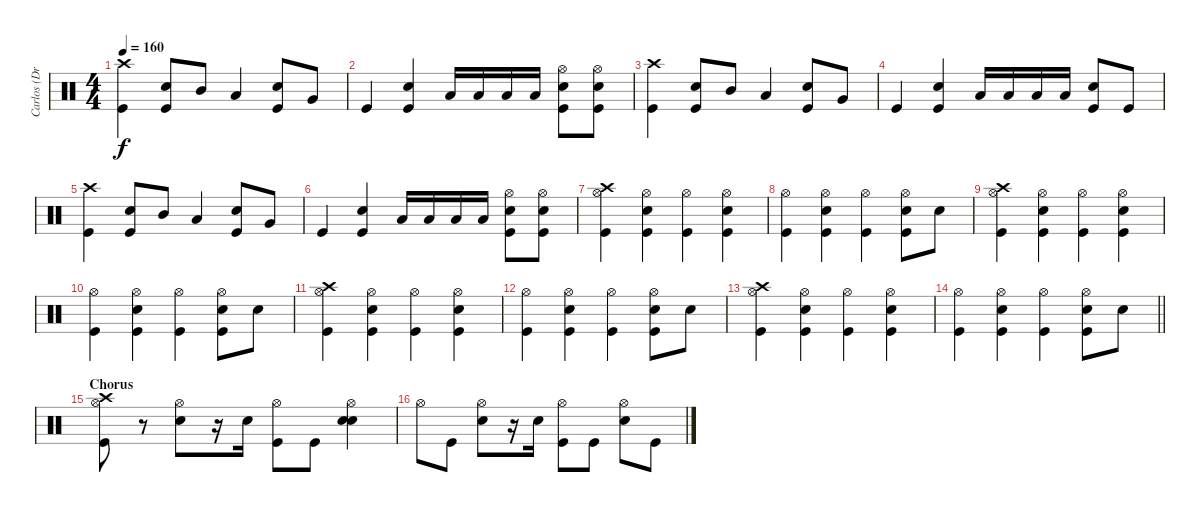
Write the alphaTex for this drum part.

\track ("Carlos (Drums)" "Carlos (Dr") {instrument percussion}
\staff {score}
\articulation defaults
\ts (4 4)
\tempo 160
\clef neutral
\ks c
("Crash high (hit)" "Kick (hit)").4{dy f} ("Snare (hit) 2" "Kick (hit)").8 "Mid Tom (hit)".8 "Low Tom (hit)".4 ("Snare (hit) 2" "Kick (hit)").8 "Very Low Tom (hit)".8 |
"Kick (hit)".4 ("Snare (hit) 2" "Kick (hit)").4 "Low Tom (hit)".16 "Low Tom (hit)".16 "Low Tom (hit)".16 "Low Tom (hit)".16 ("Hi-Hat (open)" "Snare (hit) 2" "Kick (hit)").8 ("Hi-Hat (open)" "Snare (hit) 2" "Kick (hit)").8 |
("Crash high (hit)" "Kick (hit)").4 ("Snare (hit) 2" "Kick (hit)").8 "Mid Tom (hit)".8 "Low Tom (hit)".4 ("Snare (hit) 2" "Kick (hit)").8 "Very Low Tom (hit)".8 |
"Kick (hit)".4 ("Snare (hit) 2" "Kick (hit)").4 "Low Tom (hit)".16 "Low Tom (hit)".16 "Low Tom (hit)".16 "Low Tom (hit)".16 ("Snare (hit) 2" "Kick (hit)").8 "Kick (hit)".8 |
("Crash high (hit)" "Kick (hit)").4 ("Snare (hit) 2" "Kick (hit)").8 "Mid Tom (hit)".8 "Low Tom (hit)".4 ("Snare (hit) 2" "Kick (hit)").8 "Very Low Tom (hit)".8 |
"Kick (hit)".4 ("Snare (hit) 2" "Kick (hit)").4 "Low Tom (hit)".16 "Low Tom (hit)".16 "Low Tom (hit)".16 "Low Tom (hit)".16 ("Hi-Hat (open)" "Snare (hit) 2" "Kick (hit)").8 ("Hi-Hat (open)" "Snare (hit) 2" "Kick (hit)").8 |
("Crash high (hit)" "Hi-Hat (open)" "Kick (hit)").4 ("Hi-Hat (open)" "Snare (hit) 2" "Kick (hit)").4 ("Hi-Hat (open)" "Kick (hit)").4 ("Hi-Hat (open)" "Snare (hit) 2" "Kick (hit)").4 |
("Hi-Hat (open)" "Kick (hit)").4 ("Hi-Hat (open)" "Snare (hit) 2" "Kick (hit)").4 ("Hi-Hat (open)" "Kick (hit)").4 ("Hi-Hat (open)" "Snare (hit) 2" "Kick (hit)").8 "Snare (hit) 2".8 |
("Crash high (hit)" "Hi-Hat (open)" "Kick (hit)").4 ("Hi-Hat (open)" "Snare (hit) 2" "Kick (hit)").4 ("Hi-Hat (open)" "Kick (hit)").4 ("Hi-Hat (open)" "Snare (hit) 2" "Kick (hit)").4 |
("Hi-Hat (open)" "Kick (hit)").4 ("Hi-Hat (open)" "Snare (hit) 2" "Kick (hit)").4 ("Hi-Hat (open)" "Kick (hit)").4 ("Hi-Hat (open)" "Snare (hit) 2" "Kick (hit)").8 "Snare (hit) 2".8 |
("Crash high (hit)" "Hi-Hat (open)" "Kick (hit)").4 ("Hi-Hat (open)" "Snare (hit) 2" "Kick (hit)").4 ("Hi-Hat (open)" "Kick (hit)").4 ("Hi-Hat (open)" "Snare (hit) 2" "Kick (hit)").4 |
("Hi-Hat (open)" "Kick (hit)").4 ("Hi-Hat (open)" "Snare (hit) 2" "Kick (hit)").4 ("Hi-Hat (open)" "Kick (hit)").4 ("Hi-Hat (open)" "Snare (hit) 2" "Kick (hit)").8 "Snare (hit) 2".8 |
("Crash high (hit)" "Hi-Hat (open)" "Kick (hit)").4 ("Hi-Hat (open)" "Snare (hit) 2" "Kick (hit)").4 ("Hi-Hat (open)" "Kick (hit)").4 ("Hi-Hat (open)" "Snare (hit) 2" "Kick (hit)").4 |
\barLineRight lightlight
("Hi-Hat (open)" "Kick (hit)").4 ("Hi-Hat (open)" "Snare (hit) 2" "Kick (hit)").4 ("Hi-Hat (open)" "Kick (hit)").4 ("Hi-Hat (open)" "Snare (hit) 2" "Kick (hit)").8 "Snare (hit) 2".8 |
\section ("" "Chorus")
("Crash high (hit)" "Hi-Hat (open)" "Kick (hit)").8 r.8 ("Hi-Hat (open)" "Snare (hit) 2").8 r.16 "Snare (hit) 2".16 ("Hi-Hat (open)" "Kick (hit)").8 "Kick (hit)".8 ("Hi-Hat (open)" "Snare (hit) 2" "Snare (hit) 2").4 |
"Hi-Hat (open)".8 "Kick (hit)".8 ("Hi-Hat (open)" "Snare (hit) 2").8 r.16 "Snare (hit) 2".16 ("Hi-Hat (open)" "Kick (hit)").8 "Kick (hit)".8 ("Hi-Hat (open)" "Snare (hit) 2").8 "Kick (hit)".8
